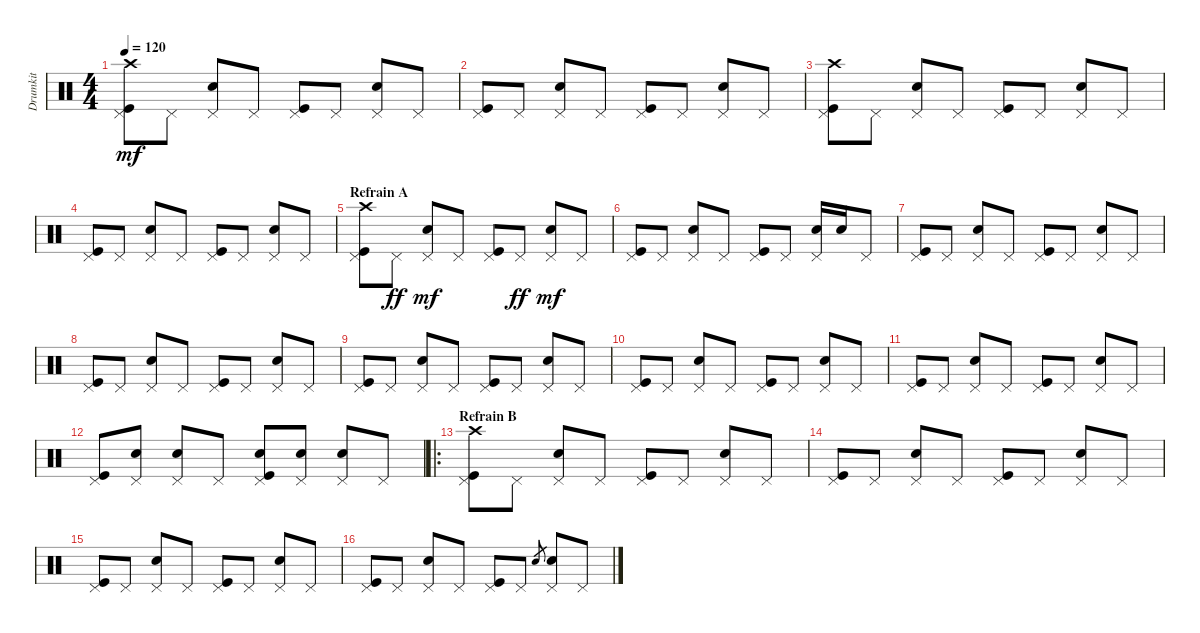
\track ("Drumkit" "Drumkit") {instrument percussion}
\staff {score}
\articulation defaults
\ts (4 4)
\tempo 120
\clef neutral
\ks c
("Kick (hit)" "Pedal Hi-Hat (hit)" "Crash high (hit)").8{dy mf} "Pedal Hi-Hat (hit)".8 ("Pedal Hi-Hat (hit)" "Snare (hit) 2").8 "Pedal Hi-Hat (hit)".8 ("Kick (hit)" "Pedal Hi-Hat (hit)").8 "Pedal Hi-Hat (hit)".8 ("Pedal Hi-Hat (hit)" "Snare (hit) 2").8 "Pedal Hi-Hat (hit)".8 |
("Kick (hit)" "Pedal Hi-Hat (hit)").8 "Pedal Hi-Hat (hit)".8 ("Pedal Hi-Hat (hit)" "Snare (hit) 2").8 "Pedal Hi-Hat (hit)".8 ("Kick (hit)" "Pedal Hi-Hat (hit)").8 "Pedal Hi-Hat (hit)".8 ("Pedal Hi-Hat (hit)" "Snare (hit) 2").8 "Pedal Hi-Hat (hit)".8 |
("Kick (hit)" "Crash high (hit)" "Pedal Hi-Hat (hit)").8 "Pedal Hi-Hat (hit)".8 ("Pedal Hi-Hat (hit)" "Snare (hit) 2").8 "Pedal Hi-Hat (hit)".8 ("Kick (hit)" "Pedal Hi-Hat (hit)").8 "Pedal Hi-Hat (hit)".8 ("Pedal Hi-Hat (hit)" "Snare (hit) 2").8 "Pedal Hi-Hat (hit)".8 |
("Kick (hit)" "Pedal Hi-Hat (hit)").8 "Pedal Hi-Hat (hit)".8 ("Pedal Hi-Hat (hit)" "Snare (hit) 2").8 "Pedal Hi-Hat (hit)".8 ("Kick (hit)" "Pedal Hi-Hat (hit)").8 "Pedal Hi-Hat (hit)".8 ("Pedal Hi-Hat (hit)" "Snare (hit) 2").8 "Pedal Hi-Hat (hit)".8 |
\section ("" "Refrain A")
("Kick (hit)" "Pedal Hi-Hat (hit)" "Crash high (hit)").8 "Pedal Hi-Hat (hit)".8{dy ff} ("Pedal Hi-Hat (hit)" "Snare (hit) 2").8{dy mf} "Pedal Hi-Hat (hit)".8 ("Kick (hit)" "Pedal Hi-Hat (hit)").8 "Pedal Hi-Hat (hit)".8{dy ff} ("Pedal Hi-Hat (hit)" "Snare (hit) 2").8{dy mf} "Pedal Hi-Hat (hit)".8 |
("Kick (hit)" "Pedal Hi-Hat (hit)").8 "Pedal Hi-Hat (hit)".8 ("Pedal Hi-Hat (hit)" "Snare (hit) 2").8 "Pedal Hi-Hat (hit)".8 ("Kick (hit)" "Pedal Hi-Hat (hit)").8 "Pedal Hi-Hat (hit)".8 ("Pedal Hi-Hat (hit)" "Snare (hit) 2").16 "Snare (hit) 2".16 "Pedal Hi-Hat (hit)".8 |
("Kick (hit)" "Pedal Hi-Hat (hit)").8 "Pedal Hi-Hat (hit)".8 ("Pedal Hi-Hat (hit)" "Snare (hit) 2").8 "Pedal Hi-Hat (hit)".8 ("Kick (hit)" "Pedal Hi-Hat (hit)").8 "Pedal Hi-Hat (hit)".8 ("Pedal Hi-Hat (hit)" "Snare (hit) 2").8 "Pedal Hi-Hat (hit)".8 |
("Kick (hit)" "Pedal Hi-Hat (hit)").8 "Pedal Hi-Hat (hit)".8 ("Pedal Hi-Hat (hit)" "Snare (hit) 2").8 "Pedal Hi-Hat (hit)".8 ("Kick (hit)" "Pedal Hi-Hat (hit)").8 "Pedal Hi-Hat (hit)".8 ("Pedal Hi-Hat (hit)" "Snare (hit) 2").8 "Pedal Hi-Hat (hit)".8 |
("Kick (hit)" "Pedal Hi-Hat (hit)").8 "Pedal Hi-Hat (hit)".8 ("Pedal Hi-Hat (hit)" "Snare (hit) 2").8 "Pedal Hi-Hat (hit)".8 ("Kick (hit)" "Pedal Hi-Hat (hit)").8 "Pedal Hi-Hat (hit)".8 ("Pedal Hi-Hat (hit)" "Snare (hit) 2").8 "Pedal Hi-Hat (hit)".8 |
("Kick (hit)" "Pedal Hi-Hat (hit)").8 "Pedal Hi-Hat (hit)".8 ("Pedal Hi-Hat (hit)" "Snare (hit) 2").8 "Pedal Hi-Hat (hit)".8 ("Kick (hit)" "Pedal Hi-Hat (hit)").8 "Pedal Hi-Hat (hit)".8 ("Pedal Hi-Hat (hit)" "Snare (hit) 2").8 "Pedal Hi-Hat (hit)".8 |
("Kick (hit)" "Pedal Hi-Hat (hit)").8 "Pedal Hi-Hat (hit)".8 ("Pedal Hi-Hat (hit)" "Snare (hit) 2").8 "Pedal Hi-Hat (hit)".8 ("Kick (hit)" "Pedal Hi-Hat (hit)").8 "Pedal Hi-Hat (hit)".8 ("Pedal Hi-Hat (hit)" "Snare (hit) 2").8 "Pedal Hi-Hat (hit)".8 |
("Kick (hit)" "Pedal Hi-Hat (hit)").8 ("Pedal Hi-Hat (hit)" "Snare (hit) 2").8 ("Pedal Hi-Hat (hit)" "Snare (hit) 2").8 "Pedal Hi-Hat (hit)".8 ("Pedal Hi-Hat (hit)" "Kick (hit)" "Snare (hit) 2").8 ("Pedal Hi-Hat (hit)" "Snare (hit) 2").8 ("Pedal Hi-Hat (hit)" "Snare (hit) 2").8 "Pedal Hi-Hat (hit)".8 |
\ro
\section ("" "Refrain B")
("Kick (hit)" "Crash high (hit)" "Pedal Hi-Hat (hit)").8 "Pedal Hi-Hat (hit)".8 ("Pedal Hi-Hat (hit)" "Snare (hit) 2").8 "Pedal Hi-Hat (hit)".8 ("Kick (hit)" "Pedal Hi-Hat (hit)").8 "Pedal Hi-Hat (hit)".8 ("Pedal Hi-Hat (hit)" "Snare (hit) 2").8 "Pedal Hi-Hat (hit)".8 |
("Kick (hit)" "Pedal Hi-Hat (hit)").8 "Pedal Hi-Hat (hit)".8 ("Pedal Hi-Hat (hit)" "Snare (hit) 2").8 "Pedal Hi-Hat (hit)".8 ("Kick (hit)" "Pedal Hi-Hat (hit)").8 "Pedal Hi-Hat (hit)".8 ("Pedal Hi-Hat (hit)" "Snare (hit) 2").8 "Pedal Hi-Hat (hit)".8 |
("Kick (hit)" "Pedal Hi-Hat (hit)").8 "Pedal Hi-Hat (hit)".8 ("Pedal Hi-Hat (hit)" "Snare (hit) 2").8 "Pedal Hi-Hat (hit)".8 ("Kick (hit)" "Pedal Hi-Hat (hit)").8 "Pedal Hi-Hat (hit)".8 ("Pedal Hi-Hat (hit)" "Snare (hit) 2").8 "Pedal Hi-Hat (hit)".8 |
("Kick (hit)" "Pedal Hi-Hat (hit)").8 "Pedal Hi-Hat (hit)".8 ("Pedal Hi-Hat (hit)" "Snare (hit) 2").8 "Pedal Hi-Hat (hit)".8 ("Kick (hit)" "Pedal Hi-Hat (hit)").8 "Pedal Hi-Hat (hit)".8 "Snare (hit)".8{gr} ("Pedal Hi-Hat (hit)" "Snare (hit) 2").8 "Pedal Hi-Hat (hit)".8
